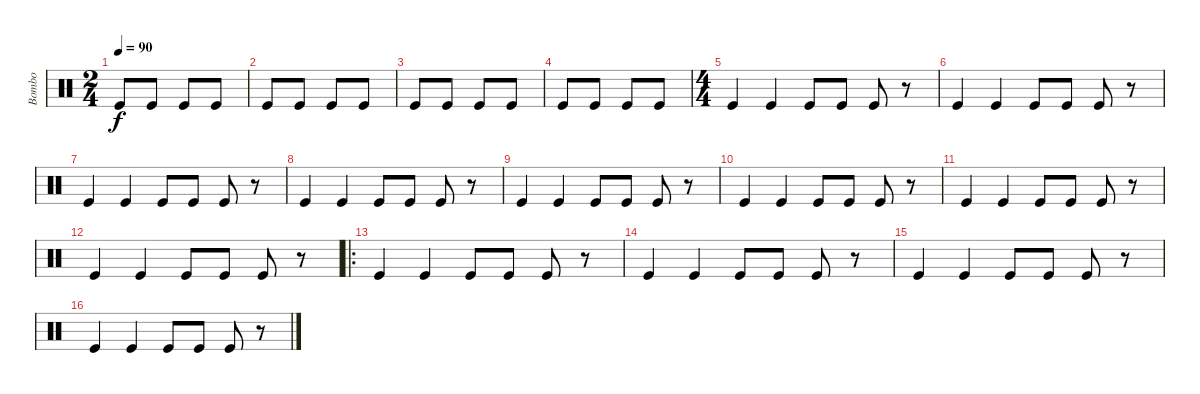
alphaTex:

\track ("Bombo" "Bombo") {instrument percussion}
\staff {score}
\articulation defaults
\ts (2 4)
\tempo 90
\clef neutral
\ks c "Kick (hit)".8{dy f} "Kick (hit)".8 "Kick (hit)".8 "Kick (hit)".8
|
"Kick (hit)".8 "Kick (hit)".8 "Kick (hit)".8 "Kick (hit)".8 |
"Kick (hit)".8 "Kick (hit)".8 "Kick (hit)".8 "Kick (hit)".8 |
"Kick (hit)".8 "Kick (hit)".8 "Kick (hit)".8 "Kick (hit)".8 |
\ts (4 4)
"Kick (hit)".4 "Kick (hit)".4 "Kick (hit)".8 "Kick (hit)".8 "Kick (hit)".8 r.8 |
"Kick (hit)".4 "Kick (hit)".4 "Kick (hit)".8 "Kick (hit)".8 "Kick (hit)".8 r.8 |
"Kick (hit)".4 "Kick (hit)".4 "Kick (hit)".8 "Kick (hit)".8 "Kick (hit)".8 r.8 |
"Kick (hit)".4 "Kick (hit)".4 "Kick (hit)".8 "Kick (hit)".8 "Kick (hit)".8 r.8 |
"Kick (hit)".4 "Kick (hit)".4 "Kick (hit)".8 "Kick (hit)".8 "Kick (hit)".8 r.8 |
"Kick (hit)".4 "Kick (hit)".4 "Kick (hit)".8 "Kick (hit)".8 "Kick (hit)".8 r.8 |
"Kick (hit)".4 "Kick (hit)".4 "Kick (hit)".8 "Kick (hit)".8 "Kick (hit)".8 r.8 |
"Kick (hit)".4 "Kick (hit)".4 "Kick (hit)".8 "Kick (hit)".8 "Kick (hit)".8 r.8 |
\ro "Kick (hit)".4 "Kick (hit)".4 "Kick (hit)".8 "Kick (hit)".8 "Kick (hit)".8
r.8 |
"Kick (hit)".4 "Kick (hit)".4 "Kick (hit)".8 "Kick (hit)".8 "Kick (hit)".8 r.8 |
"Kick (hit)".4 "Kick (hit)".4 "Kick (hit)".8 "Kick (hit)".8 "Kick (hit)".8 r.8 |
"Kick (hit)".4 "Kick (hit)".4 "Kick (hit)".8 "Kick (hit)".8 "Kick (hit)".8 r.8
